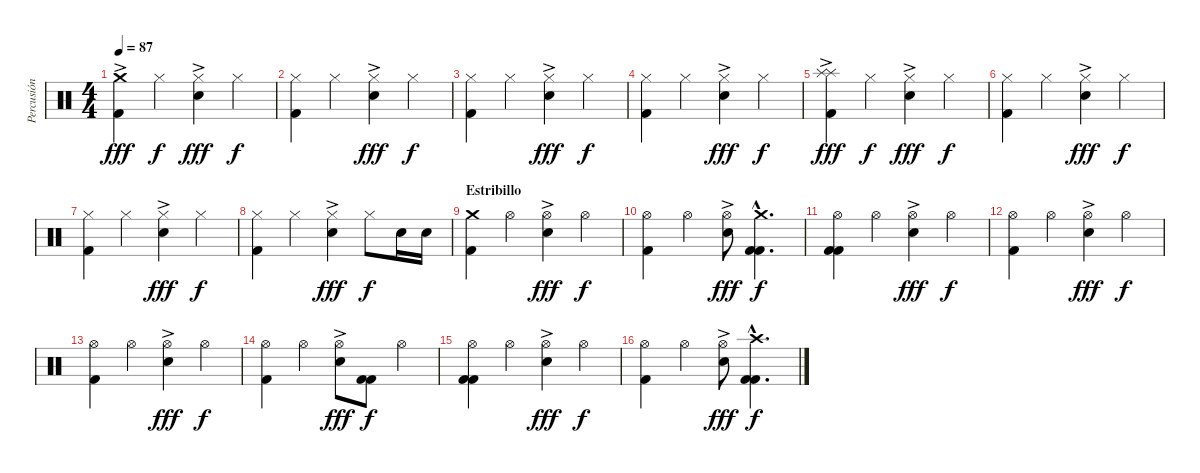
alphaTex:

\track ("Percusión" "Percusión") {instrument percussion}
\staff {score}
\articulation defaults
\ts (4 4)
\tempo 87
\clef neutral
\ks c
("Crash medium (hit)"{ac} "Kick (hit) 2").4{dy fff} "Hi-Hat (closed)".4{dy f} ("Hi-Hat (closed)" "Snare (hit) 2"{ac}).4{dy fff} "Hi-Hat (closed)".4{dy f} |
("Hi-Hat (closed)" "Kick (hit) 2").4 "Hi-Hat (closed)".4 ("Hi-Hat (closed)" "Snare (hit) 2"{ac}).4{dy fff} "Hi-Hat (closed)".4{dy f} |
("Hi-Hat (closed)" "Kick (hit) 2").4 "Hi-Hat (closed)".4 ("Hi-Hat (closed)"{ac} "Snare (hit) 2"{ac}).4{dy fff} "Hi-Hat (closed)".4{dy f} |
("Hi-Hat (closed)" "Kick (hit) 2").4 "Hi-Hat (closed)".4 ("Hi-Hat (closed)"{ac} "Snare (hit) 2"{ac}).4{dy fff} "Hi-Hat (closed)".4{dy f} |
("Splash (hit)"{ac} "Splash (hit)" "Kick (hit) 2").4{dy fff} "Hi-Hat (closed)".4{dy f} ("Hi-Hat (closed)" "Snare (hit) 2"{ac}).4{dy fff} "Hi-Hat (closed)".4{dy f} |
("Hi-Hat (closed)" "Kick (hit) 2").4 "Hi-Hat (closed)".4 ("Hi-Hat (closed)" "Snare (hit) 2"{ac}).4{dy fff} "Hi-Hat (closed)".4{dy f} |
("Hi-Hat (closed)" "Kick (hit) 2").4 "Hi-Hat (closed)".4 ("Hi-Hat (closed)"{ac} "Snare (hit) 2"{ac}).4{dy fff} "Hi-Hat (closed)".4{dy f} |
("Hi-Hat (closed)" "Kick (hit) 2").4 "Hi-Hat (closed)".4 ("Hi-Hat (closed)"{ac} "Snare (hit) 2"{ac}).4{dy fff} "Hi-Hat (closed)".8{dy f} "Snare (hit) 2".16 "Snare (hit) 2".16 |
\section ("" "Estribillo")
("Crash medium (hit)" "Kick (hit) 2").4 "Hi-Hat (open)".4 ("Hi-Hat (open)" "Snare (hit) 2"{ac}).4{dy fff} "Hi-Hat (open)".4{dy f} |
("Hi-Hat (open)" "Kick (hit) 2").4 "Hi-Hat (open)".4 ("Hi-Hat (open)" "Snare (hit) 2"{ac}).8{dy fff} ("Crash medium (hit)"{hac} "Kick (hit) 2"{hac} "Kick (hit) 2"{hac}).4{d dy f} |
("Hi-Hat (open)" "Kick (hit) 2" "Kick (hit) 2").4 "Hi-Hat (open)".4 ("Hi-Hat (open)"{ac} "Snare (hit) 2").4{dy fff} "Hi-Hat (open)".4{dy f} |
("Hi-Hat (open)" "Kick (hit) 2").4 "Hi-Hat (open)".4 ("Hi-Hat (open)" "Snare (hit) 2"{ac}).4{dy fff} "Hi-Hat (open)".4{dy f} |
("Hi-Hat (open)" "Kick (hit) 2").4 "Hi-Hat (open)".4 ("Hi-Hat (open)" "Snare (hit) 2"{ac}).4{dy fff} "Hi-Hat (open)".4{dy f} |
("Hi-Hat (open)" "Kick (hit) 2").4 "Hi-Hat (open)".4 ("Hi-Hat (open)" "Snare (hit) 2"{ac}).8{dy fff} ("Kick (hit) 2" "Kick (hit) 2").8{dy f} "Hi-Hat (open)".4 |
("Hi-Hat (open)" "Kick (hit) 2" "Kick (hit) 2").4 "Hi-Hat (open)".4 ("Hi-Hat (open)"{ac} "Snare (hit) 2").4{dy fff} "Hi-Hat (open)".4{dy f} |
("Hi-Hat (open)" "Kick (hit) 2").4 "Hi-Hat (open)".4 ("Hi-Hat (open)" "Snare (hit) 2"{ac}).8{dy fff} ("Crash high (hit)"{hac} "Kick (hit) 2"{hac} "Kick (hit) 2"{hac}).4{d dy f}
